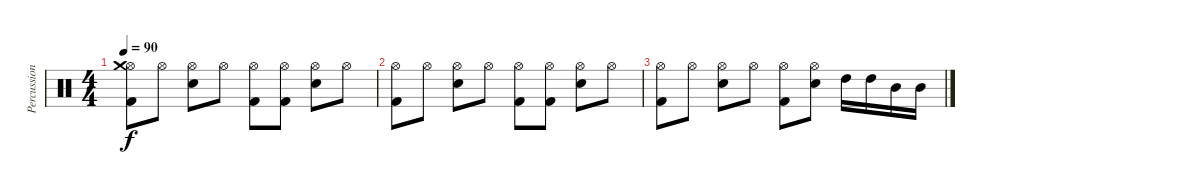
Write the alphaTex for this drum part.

\track ("Percussion" "Percussion") {instrument percussion}
\staff {score}
\articulation defaults
\ts (4 4)
\tempo 90
\clef neutral
\ks c
("Hi-Hat (open)" "Kick (hit) 2" "Crash medium (hit)").8{dy f} "Hi-Hat (open)".8 ("Hi-Hat (open)" "Electric Snare (hit)").8 "Hi-Hat (open)".8 ("Hi-Hat (open)" "Kick (hit) 2").8 ("Hi-Hat (open)" "Kick (hit) 2").8 ("Hi-Hat (open)" "Electric Snare (hit)").8 "Hi-Hat (open)".8 |
("Hi-Hat (open)" "Kick (hit) 2").8 "Hi-Hat (open)".8 ("Hi-Hat (open)" "Electric Snare (hit)").8 "Hi-Hat (open)".8 ("Hi-Hat (open)" "Kick (hit) 2").8 ("Hi-Hat (open)" "Kick (hit) 2").8 ("Hi-Hat (open)" "Electric Snare (hit)").8 "Hi-Hat (open)".8 |
("Hi-Hat (open)" "Kick (hit) 2").8 "Hi-Hat (open)".8 ("Hi-Hat (open)" "Electric Snare (hit)").8 "Hi-Hat (open)".8 ("Hi-Hat (open)" "Kick (hit) 2").8 ("Electric Snare (hit)" "Hi-Hat (open)").8 "High Tom (hit)".16 "High Tom (hit)".16 "Mid Tom (hit)".16 "Mid Tom (hit)".16
